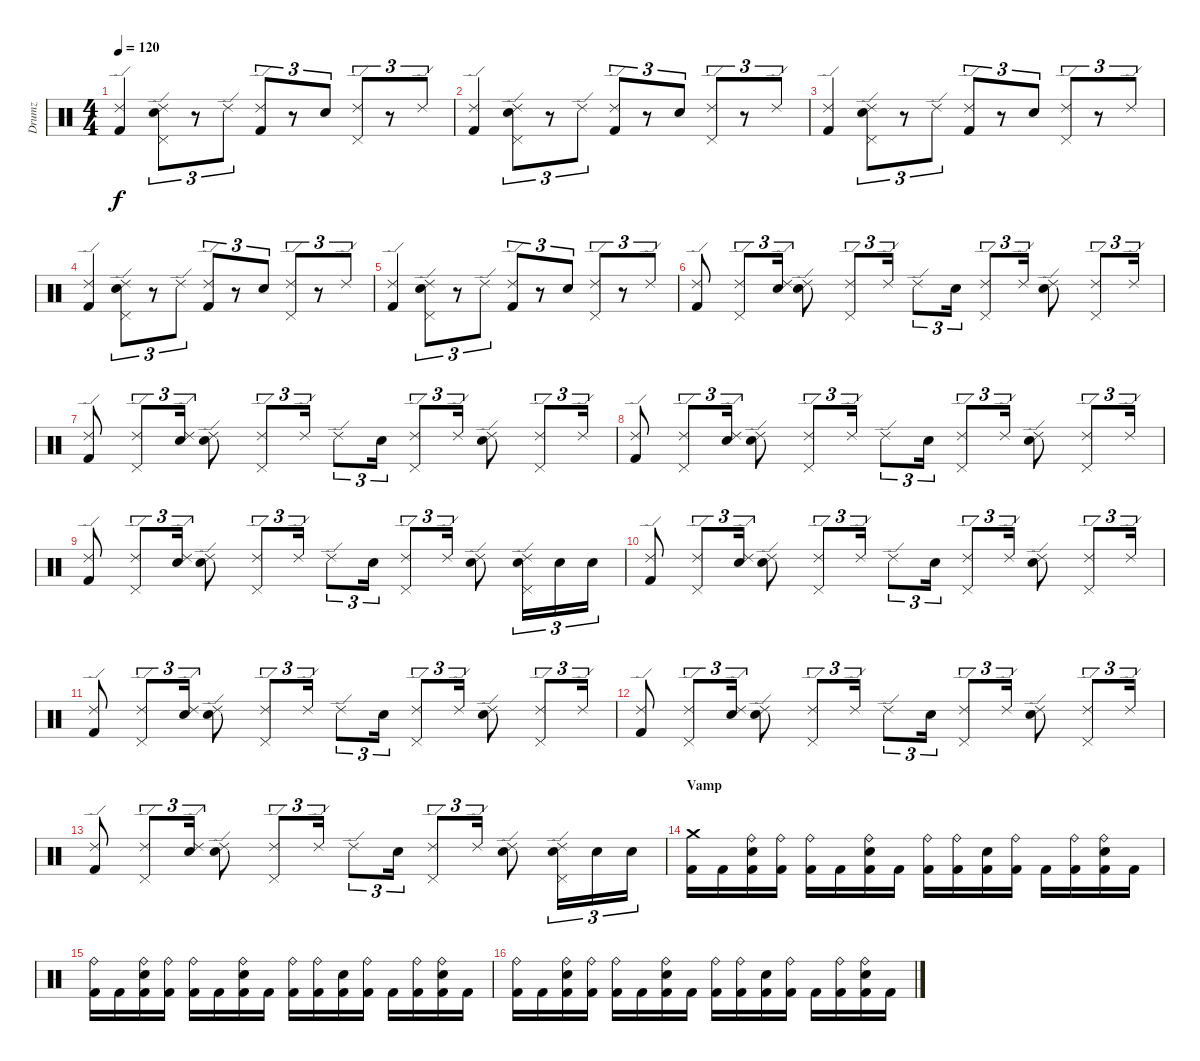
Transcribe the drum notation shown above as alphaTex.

\track ("Drumz" "Drumz") {instrument percussion}
\staff {score}
\articulation defaults
\ts (4 4)
\tempo 120
\clef neutral
\ks c
("Ride (edge) 2" "Kick (hit) 2").4{dy f} ("Ride (edge) 2" "Pedal Hi-Hat (hit)" "Snare (hit) 2").8{tu (3 2)} r.8{tu (3 2)} "Ride (edge) 2".8{tu (3 2)} ("Ride (edge) 2" "Kick (hit) 2").8{tu (3 2)} r.8{tu (3 2)} "Snare (hit) 2".8{tu (3 2)} ("Ride (edge) 2" "Pedal Hi-Hat (hit)").8{tu (3 2)} r.8{tu (3 2)} "Ride (edge) 2".8{tu (3 2)} |
("Ride (edge) 2" "Kick (hit) 2").4 ("Ride (edge) 2" "Pedal Hi-Hat (hit)" "Snare (hit) 2").8{tu (3 2)} r.8{tu (3 2)} "Ride (edge) 2".8{tu (3 2)} ("Ride (edge) 2" "Kick (hit) 2").8{tu (3 2)} r.8{tu (3 2)} "Snare (hit) 2".8{tu (3 2)} ("Ride (edge) 2" "Pedal Hi-Hat (hit)").8{tu (3 2)} r.8{tu (3 2)} "Ride (edge) 2".8{tu (3 2)} |
("Ride (edge) 2" "Kick (hit) 2").4 ("Ride (edge) 2" "Pedal Hi-Hat (hit)" "Snare (hit) 2").8{tu (3 2)} r.8{tu (3 2)} "Ride (edge) 2".8{tu (3 2)} ("Ride (edge) 2" "Kick (hit) 2").8{tu (3 2)} r.8{tu (3 2)} "Snare (hit) 2".8{tu (3 2)} ("Ride (edge) 2" "Pedal Hi-Hat (hit)").8{tu (3 2)} r.8{tu (3 2)} "Ride (edge) 2".8{tu (3 2)} |
("Ride (edge) 2" "Kick (hit) 2").4 ("Ride (edge) 2" "Pedal Hi-Hat (hit)" "Snare (hit) 2").8{tu (3 2)} r.8{tu (3 2)} "Ride (edge) 2".8{tu (3 2)} ("Ride (edge) 2" "Kick (hit) 2").8{tu (3 2)} r.8{tu (3 2)} "Snare (hit) 2".8{tu (3 2)} ("Ride (edge) 2" "Pedal Hi-Hat (hit)").8{tu (3 2)} r.8{tu (3 2)} "Ride (edge) 2".8{tu (3 2)} |
("Ride (edge) 2" "Kick (hit) 2").4 ("Ride (edge) 2" "Pedal Hi-Hat (hit)" "Snare (hit) 2").8{tu (3 2)} r.8{tu (3 2)} "Ride (edge) 2".8{tu (3 2)} ("Ride (edge) 2" "Kick (hit) 2").8{tu (3 2)} r.8{tu (3 2)} "Snare (hit) 2".8{tu (3 2)} ("Ride (edge) 2" "Pedal Hi-Hat (hit)").8{tu (3 2)} r.8{tu (3 2)} "Ride (edge) 2".8{tu (3 2)} |
("Ride (edge) 2" "Kick (hit) 2").8 ("Ride (edge) 2" "Pedal Hi-Hat (hit)").8{tu (3 2)} ("Ride (edge) 2" "Snare (hit) 2").16{tu (3 2)} ("Ride (edge) 2" "Snare (hit) 2").8 ("Ride (edge) 2" "Pedal Hi-Hat (hit)").8{tu (3 2)} "Ride (edge) 2".16{tu (3 2)} "Ride (edge) 2".8{tu (3 2)} "Snare (hit) 2".16{tu (3 2)} ("Ride (edge) 2" "Pedal Hi-Hat (hit)").8{tu (3 2)} "Ride (edge) 2".16{tu (3 2)} ("Ride (edge) 2" "Snare (hit) 2").8 ("Ride (edge) 2" "Pedal Hi-Hat (hit)").8{tu (3 2)} "Ride (edge) 2".16{tu (3 2)} |
("Ride (edge) 2" "Kick (hit) 2").8 ("Ride (edge) 2" "Pedal Hi-Hat (hit)").8{tu (3 2)} ("Ride (edge) 2" "Snare (hit) 2").16{tu (3 2)} ("Ride (edge) 2" "Snare (hit) 2").8 ("Ride (edge) 2" "Pedal Hi-Hat (hit)").8{tu (3 2)} "Ride (edge) 2".16{tu (3 2)} "Ride (edge) 2".8{tu (3 2)} "Snare (hit) 2".16{tu (3 2)} ("Ride (edge) 2" "Pedal Hi-Hat (hit)").8{tu (3 2)} "Ride (edge) 2".16{tu (3 2)} ("Ride (edge) 2" "Snare (hit) 2").8 ("Ride (edge) 2" "Pedal Hi-Hat (hit)").8{tu (3 2)} "Ride (edge) 2".16{tu (3 2)} |
("Ride (edge) 2" "Kick (hit) 2").8 ("Ride (edge) 2" "Pedal Hi-Hat (hit)").8{tu (3 2)} ("Ride (edge) 2" "Snare (hit) 2").16{tu (3 2)} ("Ride (edge) 2" "Snare (hit) 2").8 ("Ride (edge) 2" "Pedal Hi-Hat (hit)").8{tu (3 2)} "Ride (edge) 2".16{tu (3 2)} "Ride (edge) 2".8{tu (3 2)} "Snare (hit) 2".16{tu (3 2)} ("Ride (edge) 2" "Pedal Hi-Hat (hit)").8{tu (3 2)} "Ride (edge) 2".16{tu (3 2)} ("Ride (edge) 2" "Snare (hit) 2").8 ("Ride (edge) 2" "Pedal Hi-Hat (hit)").8{tu (3 2)} "Ride (edge) 2".16{tu (3 2)} |
("Ride (edge) 2" "Kick (hit) 2").8 ("Ride (edge) 2" "Pedal Hi-Hat (hit)").8{tu (3 2)} ("Ride (edge) 2" "Snare (hit) 2").16{tu (3 2)} ("Ride (edge) 2" "Snare (hit) 2").8 ("Ride (edge) 2" "Pedal Hi-Hat (hit)").8{tu (3 2)} "Ride (edge) 2".16{tu (3 2)} "Ride (edge) 2".8{tu (3 2)} "Snare (hit) 2".16{tu (3 2)} ("Ride (edge) 2" "Pedal Hi-Hat (hit)").8{tu (3 2)} "Ride (edge) 2".16{tu (3 2)} ("Ride (edge) 2" "Snare (hit) 2").8 ("Ride (edge) 2" "Pedal Hi-Hat (hit)" "Electric Snare (hit)").16{tu (3 2)} "Electric Snare (hit)".16{tu (3 2)} "Electric Snare (hit)".16{tu (3 2)} |
("Ride (edge) 2" "Kick (hit) 2").8 ("Ride (edge) 2" "Pedal Hi-Hat (hit)").8{tu (3 2)} ("Ride (edge) 2" "Snare (hit) 2").16{tu (3 2)} ("Ride (edge) 2" "Snare (hit) 2").8 ("Ride (edge) 2" "Pedal Hi-Hat (hit)").8{tu (3 2)} "Ride (edge) 2".16{tu (3 2)} "Ride (edge) 2".8{tu (3 2)} "Snare (hit) 2".16{tu (3 2)} ("Ride (edge) 2" "Pedal Hi-Hat (hit)").8{tu (3 2)} "Ride (edge) 2".16{tu (3 2)} ("Ride (edge) 2" "Snare (hit) 2").8 ("Ride (edge) 2" "Pedal Hi-Hat (hit)").8{tu (3 2)} "Ride (edge) 2".16{tu (3 2)} |
("Ride (edge) 2" "Kick (hit) 2").8 ("Ride (edge) 2" "Pedal Hi-Hat (hit)").8{tu (3 2)} ("Ride (edge) 2" "Snare (hit) 2").16{tu (3 2)} ("Ride (edge) 2" "Snare (hit) 2").8 ("Ride (edge) 2" "Pedal Hi-Hat (hit)").8{tu (3 2)} "Ride (edge) 2".16{tu (3 2)} "Ride (edge) 2".8{tu (3 2)} "Snare (hit) 2".16{tu (3 2)} ("Ride (edge) 2" "Pedal Hi-Hat (hit)").8{tu (3 2)} "Ride (edge) 2".16{tu (3 2)} ("Ride (edge) 2" "Snare (hit) 2").8 ("Ride (edge) 2" "Pedal Hi-Hat (hit)").8{tu (3 2)} "Ride (edge) 2".16{tu (3 2)} |
("Ride (edge) 2" "Kick (hit) 2").8 ("Ride (edge) 2" "Pedal Hi-Hat (hit)").8{tu (3 2)} ("Ride (edge) 2" "Snare (hit) 2").16{tu (3 2)} ("Ride (edge) 2" "Snare (hit) 2").8 ("Ride (edge) 2" "Pedal Hi-Hat (hit)").8{tu (3 2)} "Ride (edge) 2".16{tu (3 2)} "Ride (edge) 2".8{tu (3 2)} "Snare (hit) 2".16{tu (3 2)} ("Ride (edge) 2" "Pedal Hi-Hat (hit)").8{tu (3 2)} "Ride (edge) 2".16{tu (3 2)} ("Ride (edge) 2" "Snare (hit) 2").8 ("Ride (edge) 2" "Pedal Hi-Hat (hit)").8{tu (3 2)} "Ride (edge) 2".16{tu (3 2)} |
("Ride (edge) 2" "Kick (hit) 2").8 ("Ride (edge) 2" "Pedal Hi-Hat (hit)").8{tu (3 2)} ("Ride (edge) 2" "Snare (hit) 2").16{tu (3 2)} ("Ride (edge) 2" "Snare (hit) 2").8 ("Ride (edge) 2" "Pedal Hi-Hat (hit)").8{tu (3 2)} "Ride (edge) 2".16{tu (3 2)} "Ride (edge) 2".8{tu (3 2)} "Snare (hit) 2".16{tu (3 2)} ("Ride (edge) 2" "Pedal Hi-Hat (hit)").8{tu (3 2)} "Ride (edge) 2".16{tu (3 2)} ("Ride (edge) 2" "Snare (hit) 2").8 ("Ride (edge) 2" "Pedal Hi-Hat (hit)" "Electric Snare (hit)").16{tu (3 2)} "Electric Snare (hit)".16{tu (3 2)} "Electric Snare (hit)".16{tu (3 2)} |
\section ("" "Vamp ")
("Crash medium (hit)" "Kick (hit) 2").16 "Kick (hit) 2".16 ("Ride (bell)" "Snare (hit) 2" "Kick (hit) 2").16 ("Ride (bell)" "Kick (hit) 2").16 ("Ride (bell)" "Kick (hit) 2").16 "Kick (hit) 2".16 ("Ride (bell)" "Snare (hit) 2" "Kick (hit) 2").16 "Kick (hit) 2".16 ("Ride (bell)" "Kick (hit) 2").16 ("Ride (bell)" "Kick (hit) 2").16 ("Snare (hit) 2" "Kick (hit) 2").16 ("Ride (bell)" "Kick (hit) 2").16 "Kick (hit) 2".16 ("Ride (bell)" "Kick (hit) 2").16 ("Ride (bell)" "Snare (hit) 2" "Kick (hit) 2").16 "Kick (hit) 2".16 |
("Ride (bell)" "Kick (hit) 2").16 "Kick (hit) 2".16 ("Ride (bell)" "Snare (hit) 2" "Kick (hit) 2").16 ("Ride (bell)" "Kick (hit) 2").16 ("Ride (bell)" "Kick (hit) 2").16 "Kick (hit) 2".16 ("Ride (bell)" "Snare (hit) 2" "Kick (hit) 2").16 "Kick (hit) 2".16 ("Ride (bell)" "Kick (hit) 2").16 ("Ride (bell)" "Kick (hit) 2").16 ("Snare (hit) 2" "Kick (hit) 2").16 ("Ride (bell)" "Kick (hit) 2").16 "Kick (hit) 2".16 ("Ride (bell)" "Kick (hit) 2").16 ("Ride (bell)" "Snare (hit) 2" "Kick (hit) 2").16 "Kick (hit) 2".16 |
("Ride (bell)" "Kick (hit) 2").16 "Kick (hit) 2".16 ("Ride (bell)" "Snare (hit) 2" "Kick (hit) 2").16 ("Ride (bell)" "Kick (hit) 2").16 ("Ride (bell)" "Kick (hit) 2").16 "Kick (hit) 2".16 ("Ride (bell)" "Snare (hit) 2" "Kick (hit) 2").16 "Kick (hit) 2".16 ("Ride (bell)" "Kick (hit) 2").16 ("Ride (bell)" "Kick (hit) 2").16 ("Snare (hit) 2" "Kick (hit) 2").16 ("Ride (bell)" "Kick (hit) 2").16 "Kick (hit) 2".16 ("Ride (bell)" "Kick (hit) 2").16 ("Ride (bell)" "Snare (hit) 2" "Kick (hit) 2").16 "Kick (hit) 2".16
